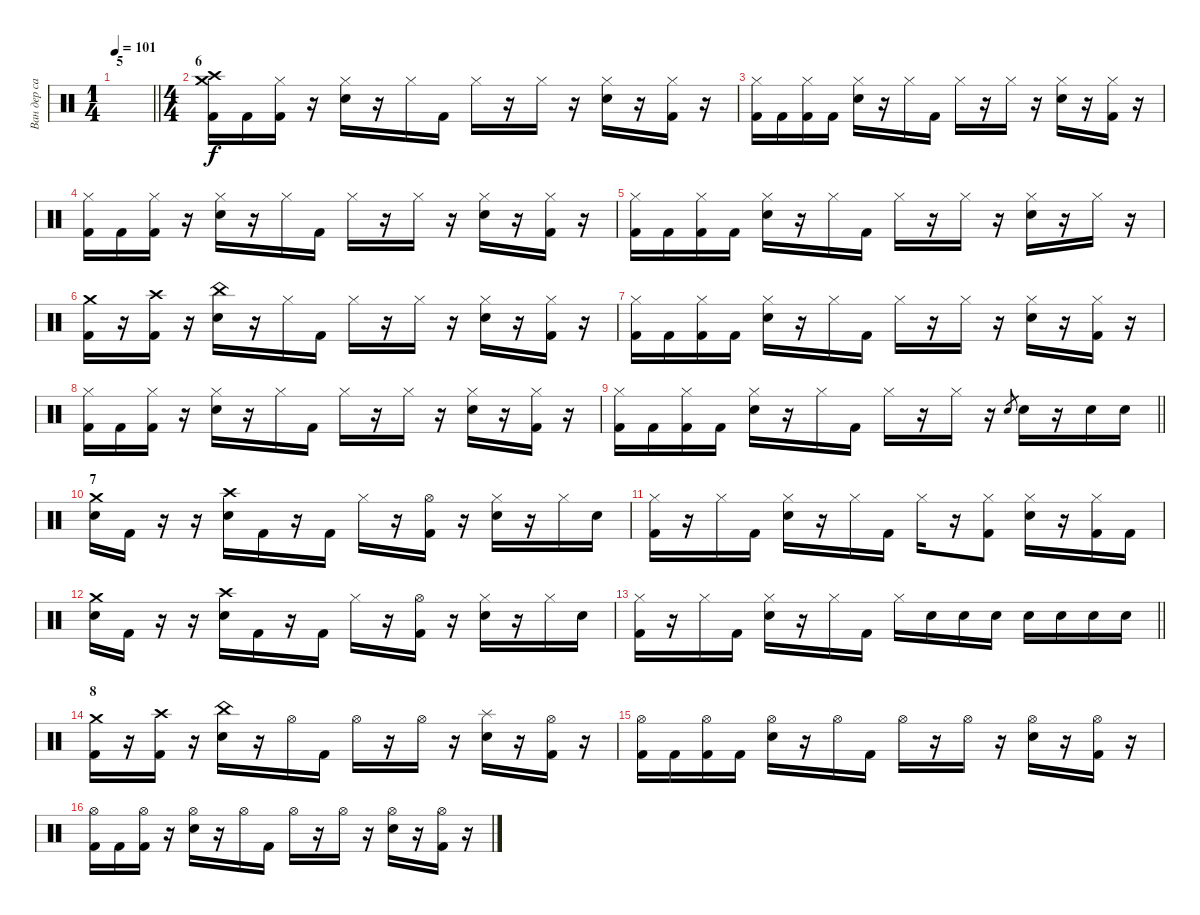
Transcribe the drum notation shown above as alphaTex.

\track ("Ван дер сар" "Ван дер са") {instrument percussion}
\staff {score}
\articulation defaults
\ts (1 4)
\section ("" "5")
\tempo 101
\clef neutral
\barLineRight lightlight
\ks c
|
\ts (4 4)
\section ("" "6")
("Crash medium (hit)" "Crash high (hit)" "Kick (hit) 2").16 "Kick (hit) 2".16 ("Hi-Hat (closed)" "Kick (hit) 2").16 r.16 ("Hi-Hat (closed)" "Snare (hit) 2").16 r.16 "Hi-Hat (closed)".16 "Kick (hit) 2".16 "Hi-Hat (closed)".16 r.16 "Hi-Hat (closed)".16 r.16 ("Hi-Hat (closed)" "Snare (hit) 2").16 r.16 ("Hi-Hat (closed)" "Kick (hit) 2").16 r.16 |
("Hi-Hat (closed)" "Kick (hit) 2").16 "Kick (hit) 2".16 ("Hi-Hat (closed)" "Kick (hit) 2").16 "Kick (hit) 2".16 ("Hi-Hat (closed)" "Snare (hit) 2").16 r.16 "Hi-Hat (closed)".16 "Kick (hit) 2".16 "Hi-Hat (closed)".16 r.16 "Hi-Hat (closed)".16 r.16 ("Hi-Hat (closed)" "Snare (hit) 2").16 r.16 ("Hi-Hat (closed)" "Kick (hit) 2").16 r.16 |
("Hi-Hat (closed)" "Kick (hit) 2").16 "Kick (hit) 2".16 ("Hi-Hat (closed)" "Kick (hit) 2").16 r.16 ("Hi-Hat (closed)" "Snare (hit) 2").16 r.16 "Hi-Hat (closed)".16 "Kick (hit) 2".16 "Hi-Hat (closed)".16 r.16 "Hi-Hat (closed)".16 r.16 ("Hi-Hat (closed)" "Snare (hit) 2").16 r.16 ("Hi-Hat (closed)" "Kick (hit) 2").16 r.16 |
("Hi-Hat (closed)" "Kick (hit) 2").16 "Kick (hit) 2".16 ("Hi-Hat (closed)" "Kick (hit) 2").16 "Kick (hit) 2".16 ("Hi-Hat (closed)" "Snare (hit) 2").16 r.16 "Hi-Hat (closed)".16 "Kick (hit) 2".16 "Hi-Hat (closed)".16 r.16 "Hi-Hat (closed)".16 r.16 ("Hi-Hat (closed)" "Snare (hit) 2").16 r.16 "Hi-Hat (closed)".16 r.16 |
("Crash medium (hit)" "Kick (hit) 2").16 r.16 ("Crash high (hit)" "Kick (hit) 2").16 r.16 ("China (hit)" "Snare (hit) 2").16 r.16 "Hi-Hat (closed)".16 "Kick (hit) 2".16 "Hi-Hat (closed)".16 r.16 "Hi-Hat (closed)".16 r.16 ("Hi-Hat (closed)" "Snare (hit) 2").16 r.16 ("Hi-Hat (closed)" "Kick (hit) 2").16 r.16 |
("Hi-Hat (closed)" "Kick (hit) 2").16 "Kick (hit) 2".16 ("Hi-Hat (closed)" "Kick (hit) 2").16 "Kick (hit) 2".16 ("Hi-Hat (closed)" "Snare (hit) 2").16 r.16 "Hi-Hat (closed)".16 "Kick (hit) 2".16 "Hi-Hat (closed)".16 r.16 "Hi-Hat (closed)".16 r.16 ("Hi-Hat (closed)" "Snare (hit) 2").16 r.16 ("Hi-Hat (closed)" "Kick (hit) 2").16 r.16 |
("Hi-Hat (closed)" "Kick (hit) 2").16 "Kick (hit) 2".16 ("Hi-Hat (closed)" "Kick (hit) 2").16 r.16 ("Hi-Hat (closed)" "Snare (hit) 2").16 r.16 "Hi-Hat (closed)".16 "Kick (hit) 2".16 "Hi-Hat (closed)".16 r.16 "Hi-Hat (closed)".16 r.16 ("Hi-Hat (closed)" "Snare (hit) 2").16 r.16 ("Hi-Hat (closed)" "Kick (hit) 2").16 r.16 |
\barLineRight lightlight
("Hi-Hat (closed)" "Kick (hit) 2").16 "Kick (hit) 2".16 ("Hi-Hat (closed)" "Kick (hit) 2").16 "Kick (hit) 2".16 ("Hi-Hat (closed)" "Snare (hit) 2").16 r.16 "Hi-Hat (closed)".16 "Kick (hit) 2".16 "Hi-Hat (closed)".16 r.16 "Hi-Hat (closed)".16 r.16 "Snare (hit) 2".8{gr} "Snare (hit) 2".16 r.16 "Snare (hit) 2".16 "Snare (hit) 2".16 |
\section ("" "7")
("Crash medium (hit)" "Snare (hit) 2").16 "Kick (hit) 2".16 r.16 r.16 ("Crash high (hit)" "Snare (hit) 2").16 "Kick (hit) 2".16 r.16 "Kick (hit) 2".16 "Hi-Hat (closed)".16 r.16 ("Hi-Hat (open)" "Kick (hit) 2").16 r.16 ("Hi-Hat (closed)" "Snare (hit) 2").16 r.16 "Hi-Hat (closed)".16 "Snare (hit) 2".16 |
("Hi-Hat (closed)" "Kick (hit) 2").16 r.16 "Hi-Hat (closed)".16 "Kick (hit) 2".16 ("Hi-Hat (closed)" "Snare (hit) 2").16 r.16 "Hi-Hat (closed)".16 "Kick (hit) 2".16 "Hi-Hat (closed)".16 r.16 ("Hi-Hat (closed)" "Kick (hit) 2").8 ("Hi-Hat (closed)" "Snare (hit) 2").16 r.16 ("Hi-Hat (closed)" "Kick (hit) 2").16 "Kick (hit) 2".16 |
("Crash medium (hit)" "Snare (hit) 2").16 "Kick (hit) 2".16 r.16 r.16 ("Crash high (hit)" "Snare (hit) 2").16 "Kick (hit) 2".16 r.16 "Kick (hit) 2".16 "Hi-Hat (closed)".16 r.16 ("Hi-Hat (open)" "Kick (hit) 2").16 r.16 ("Hi-Hat (closed)" "Snare (hit) 2").16 r.16 "Hi-Hat (closed)".16 "Snare (hit) 2".16 |
\barLineRight lightlight
("Hi-Hat (closed)" "Kick (hit) 2").16 r.16 "Hi-Hat (closed)".16 "Kick (hit) 2".16 ("Hi-Hat (closed)" "Snare (hit) 2").16 r.16 "Hi-Hat (closed)".16 "Kick (hit) 2".16 "Hi-Hat (closed)".16 "Snare (hit) 2".16 "Snare (hit) 2".16 "Snare (hit) 2".16 "Snare (hit) 2".16 "Snare (hit) 2".16 "Snare (hit) 2".16 "Snare (hit) 2".16 |
\section ("" "8")
("Crash medium (hit)" "Kick (hit) 2").16 r.16 ("Crash high (hit)" "Kick (hit) 2").16 r.16 ("China (hit)" "Snare (hit) 2").16 r.16 "Hi-Hat (open)".16 "Kick (hit) 2".16 "Hi-Hat (open)".16 r.16 "Hi-Hat (open)".16 r.16 ("Splash (hit)" "Snare (hit) 2").16 r.16 ("Hi-Hat (open)" "Kick (hit) 2").16 r.16 |
("Hi-Hat (open)" "Kick (hit) 2").16 "Kick (hit) 2".16 ("Hi-Hat (open)" "Kick (hit) 2").16 "Kick (hit) 2".16 ("Hi-Hat (open)" "Snare (hit) 2").16 r.16 "Hi-Hat (open)".16 "Kick (hit) 2".16 "Hi-Hat (open)".16 r.16 "Hi-Hat (open)".16 r.16 ("Hi-Hat (open)" "Snare (hit) 2").16 r.16 ("Hi-Hat (open)" "Kick (hit) 2").16 r.16 |
("Hi-Hat (open)" "Kick (hit) 2").16 "Kick (hit) 2".16 ("Hi-Hat (open)" "Kick (hit) 2").16 r.16 ("Hi-Hat (open)" "Snare (hit) 2").16 r.16 "Hi-Hat (open)".16 "Kick (hit) 2".16 "Hi-Hat (open)".16 r.16 "Hi-Hat (open)".16 r.16 ("Hi-Hat (open)" "Snare (hit) 2").16 r.16 ("Hi-Hat (open)" "Kick (hit) 2").16 r.16
